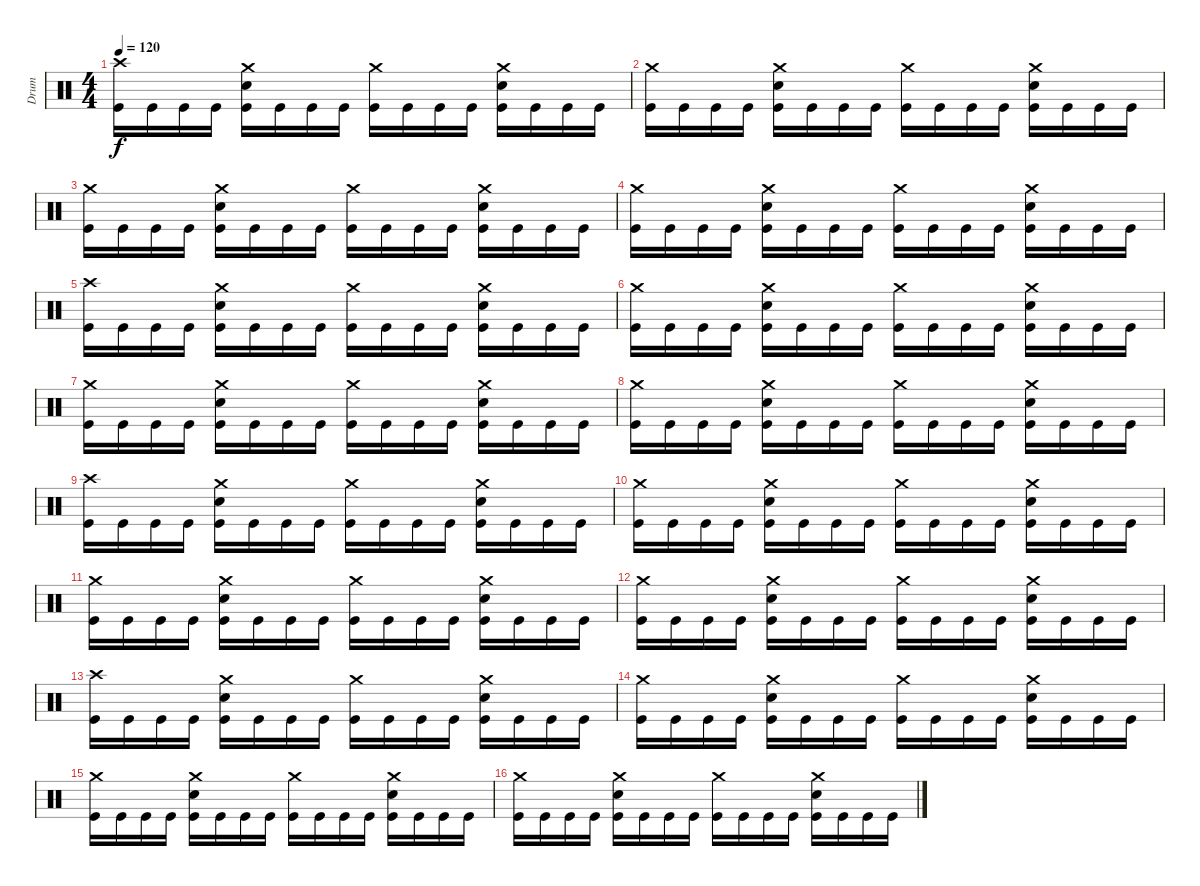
\track ("Drum" "Drum") {instrument percussion}
\staff {score}
\articulation defaults
\ts (4 4)
\tempo 120
\clef neutral
\ks c
("Kick (hit)" "Crash high (hit)").16{dy f} "Kick (hit)".16 "Kick (hit)".16 "Kick (hit)".16 ("Kick (hit)" "Electric Snare (hit)" "Crash medium (hit)").16 "Kick (hit)".16 "Kick (hit)".16 "Kick (hit)".16 ("Kick (hit)" "Crash medium (hit)").16 "Kick (hit)".16 "Kick (hit)".16 "Kick (hit)".16 ("Kick (hit)" "Electric Snare (hit)" "Crash medium (hit)").16 "Kick (hit)".16 "Kick (hit)".16 "Kick (hit)".16 |
("Kick (hit)" "Crash medium (hit)").16 "Kick (hit)".16 "Kick (hit)".16 "Kick (hit)".16 ("Kick (hit)" "Electric Snare (hit)" "Crash medium (hit)").16 "Kick (hit)".16 "Kick (hit)".16 "Kick (hit)".16 ("Kick (hit)" "Crash medium (hit)").16 "Kick (hit)".16 "Kick (hit)".16 "Kick (hit)".16 ("Kick (hit)" "Electric Snare (hit)" "Crash medium (hit)").16 "Kick (hit)".16 "Kick (hit)".16 "Kick (hit)".16 |
("Kick (hit)" "Crash medium (hit)").16 "Kick (hit)".16 "Kick (hit)".16 "Kick (hit)".16 ("Kick (hit)" "Electric Snare (hit)" "Crash medium (hit)").16 "Kick (hit)".16 "Kick (hit)".16 "Kick (hit)".16 ("Kick (hit)" "Crash medium (hit)").16 "Kick (hit)".16 "Kick (hit)".16 "Kick (hit)".16 ("Kick (hit)" "Electric Snare (hit)" "Crash medium (hit)").16 "Kick (hit)".16 "Kick (hit)".16 "Kick (hit)".16 |
("Kick (hit)" "Crash medium (hit)").16 "Kick (hit)".16 "Kick (hit)".16 "Kick (hit)".16 ("Kick (hit)" "Electric Snare (hit)" "Crash medium (hit)").16 "Kick (hit)".16 "Kick (hit)".16 "Kick (hit)".16 ("Kick (hit)" "Crash medium (hit)").16 "Kick (hit)".16 "Kick (hit)".16 "Kick (hit)".16 ("Kick (hit)" "Electric Snare (hit)" "Crash medium (hit)").16 "Kick (hit)".16 "Kick (hit)".16 "Kick (hit)".16 |
("Kick (hit)" "Crash high (hit)").16 "Kick (hit)".16 "Kick (hit)".16 "Kick (hit)".16 ("Kick (hit)" "Electric Snare (hit)" "Crash medium (hit)").16 "Kick (hit)".16 "Kick (hit)".16 "Kick (hit)".16 ("Kick (hit)" "Crash medium (hit)").16 "Kick (hit)".16 "Kick (hit)".16 "Kick (hit)".16 ("Kick (hit)" "Electric Snare (hit)" "Crash medium (hit)").16 "Kick (hit)".16 "Kick (hit)".16 "Kick (hit)".16 |
("Kick (hit)" "Crash medium (hit)").16 "Kick (hit)".16 "Kick (hit)".16 "Kick (hit)".16 ("Kick (hit)" "Electric Snare (hit)" "Crash medium (hit)").16 "Kick (hit)".16 "Kick (hit)".16 "Kick (hit)".16 ("Kick (hit)" "Crash medium (hit)").16 "Kick (hit)".16 "Kick (hit)".16 "Kick (hit)".16 ("Kick (hit)" "Electric Snare (hit)" "Crash medium (hit)").16 "Kick (hit)".16 "Kick (hit)".16 "Kick (hit)".16 |
("Kick (hit)" "Crash medium (hit)").16 "Kick (hit)".16 "Kick (hit)".16 "Kick (hit)".16 ("Kick (hit)" "Electric Snare (hit)" "Crash medium (hit)").16 "Kick (hit)".16 "Kick (hit)".16 "Kick (hit)".16 ("Kick (hit)" "Crash medium (hit)").16 "Kick (hit)".16 "Kick (hit)".16 "Kick (hit)".16 ("Kick (hit)" "Electric Snare (hit)" "Crash medium (hit)").16 "Kick (hit)".16 "Kick (hit)".16 "Kick (hit)".16 |
("Kick (hit)" "Crash medium (hit)").16 "Kick (hit)".16 "Kick (hit)".16 "Kick (hit)".16 ("Kick (hit)" "Electric Snare (hit)" "Crash medium (hit)").16 "Kick (hit)".16 "Kick (hit)".16 "Kick (hit)".16 ("Kick (hit)" "Crash medium (hit)").16 "Kick (hit)".16 "Kick (hit)".16 "Kick (hit)".16 ("Kick (hit)" "Electric Snare (hit)" "Crash medium (hit)").16 "Kick (hit)".16 "Kick (hit)".16 "Kick (hit)".16 |
("Kick (hit)" "Crash high (hit)").16 "Kick (hit)".16 "Kick (hit)".16 "Kick (hit)".16 ("Kick (hit)" "Electric Snare (hit)" "Crash medium (hit)").16 "Kick (hit)".16 "Kick (hit)".16 "Kick (hit)".16 ("Kick (hit)" "Crash medium (hit)").16 "Kick (hit)".16 "Kick (hit)".16 "Kick (hit)".16 ("Kick (hit)" "Electric Snare (hit)" "Crash medium (hit)").16 "Kick (hit)".16 "Kick (hit)".16 "Kick (hit)".16 |
("Kick (hit)" "Crash medium (hit)").16 "Kick (hit)".16 "Kick (hit)".16 "Kick (hit)".16 ("Kick (hit)" "Electric Snare (hit)" "Crash medium (hit)").16 "Kick (hit)".16 "Kick (hit)".16 "Kick (hit)".16 ("Kick (hit)" "Crash medium (hit)").16 "Kick (hit)".16 "Kick (hit)".16 "Kick (hit)".16 ("Kick (hit)" "Electric Snare (hit)" "Crash medium (hit)").16 "Kick (hit)".16 "Kick (hit)".16 "Kick (hit)".16 |
("Kick (hit)" "Crash medium (hit)").16 "Kick (hit)".16 "Kick (hit)".16 "Kick (hit)".16 ("Kick (hit)" "Electric Snare (hit)" "Crash medium (hit)").16 "Kick (hit)".16 "Kick (hit)".16 "Kick (hit)".16 ("Kick (hit)" "Crash medium (hit)").16 "Kick (hit)".16 "Kick (hit)".16 "Kick (hit)".16 ("Kick (hit)" "Electric Snare (hit)" "Crash medium (hit)").16 "Kick (hit)".16 "Kick (hit)".16 "Kick (hit)".16 |
("Kick (hit)" "Crash medium (hit)").16 "Kick (hit)".16 "Kick (hit)".16 "Kick (hit)".16 ("Kick (hit)" "Electric Snare (hit)" "Crash medium (hit)").16 "Kick (hit)".16 "Kick (hit)".16 "Kick (hit)".16 ("Kick (hit)" "Crash medium (hit)").16 "Kick (hit)".16 "Kick (hit)".16 "Kick (hit)".16 ("Kick (hit)" "Electric Snare (hit)" "Crash medium (hit)").16 "Kick (hit)".16 "Kick (hit)".16 "Kick (hit)".16 |
("Kick (hit)" "Crash high (hit)").16 "Kick (hit)".16 "Kick (hit)".16 "Kick (hit)".16 ("Kick (hit)" "Electric Snare (hit)" "Crash medium (hit)").16 "Kick (hit)".16 "Kick (hit)".16 "Kick (hit)".16 ("Kick (hit)" "Crash medium (hit)").16 "Kick (hit)".16 "Kick (hit)".16 "Kick (hit)".16 ("Kick (hit)" "Electric Snare (hit)" "Crash medium (hit)").16 "Kick (hit)".16 "Kick (hit)".16 "Kick (hit)".16 |
("Kick (hit)" "Crash medium (hit)").16 "Kick (hit)".16 "Kick (hit)".16 "Kick (hit)".16 ("Kick (hit)" "Electric Snare (hit)" "Crash medium (hit)").16 "Kick (hit)".16 "Kick (hit)".16 "Kick (hit)".16 ("Kick (hit)" "Crash medium (hit)").16 "Kick (hit)".16 "Kick (hit)".16 "Kick (hit)".16 ("Kick (hit)" "Electric Snare (hit)" "Crash medium (hit)").16 "Kick (hit)".16 "Kick (hit)".16 "Kick (hit)".16 |
("Kick (hit)" "Crash medium (hit)").16 "Kick (hit)".16 "Kick (hit)".16 "Kick (hit)".16 ("Kick (hit)" "Electric Snare (hit)" "Crash medium (hit)").16 "Kick (hit)".16 "Kick (hit)".16 "Kick (hit)".16 ("Kick (hit)" "Crash medium (hit)").16 "Kick (hit)".16 "Kick (hit)".16 "Kick (hit)".16 ("Kick (hit)" "Electric Snare (hit)" "Crash medium (hit)").16 "Kick (hit)".16 "Kick (hit)".16 "Kick (hit)".16 |
("Kick (hit)" "Crash medium (hit)").16 "Kick (hit)".16 "Kick (hit)".16 "Kick (hit)".16 ("Kick (hit)" "Electric Snare (hit)" "Crash medium (hit)").16 "Kick (hit)".16 "Kick (hit)".16 "Kick (hit)".16 ("Kick (hit)" "Crash medium (hit)").16 "Kick (hit)".16 "Kick (hit)".16 "Kick (hit)".16 ("Kick (hit)" "Electric Snare (hit)" "Crash medium (hit)").16 "Kick (hit)".16 "Kick (hit)".16 "Kick (hit)".16
